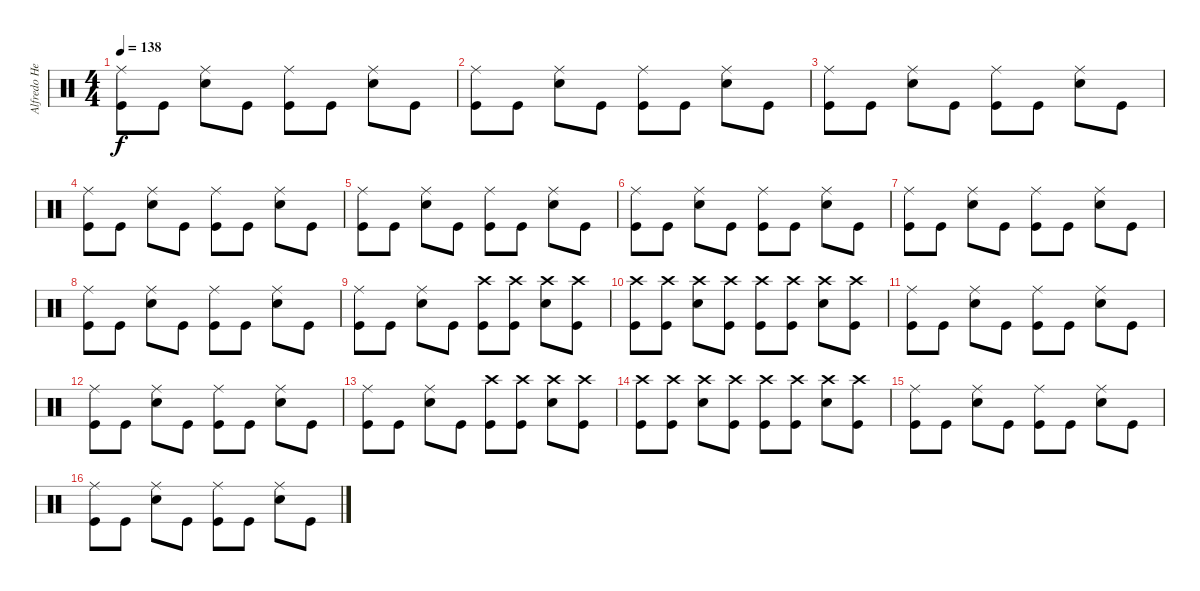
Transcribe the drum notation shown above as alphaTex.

\track ("Alfredo Hernandez" "Alfredo He") {instrument percussion}
\staff {score}
\articulation defaults
\ts (4 4)
\tempo 138
\clef neutral
\ks c
("Kick (hit)" "Ride (middle)").8{dy f} "Kick (hit)".8 ("Snare (hit) 2" "Ride (middle)").8 "Kick (hit)".8 ("Kick (hit)" "Ride (middle)").8 "Kick (hit)".8 ("Snare (hit) 2" "Ride (middle)").8 "Kick (hit)".8 |
("Kick (hit)" "Ride (middle)").8 "Kick (hit)".8 ("Snare (hit) 2" "Ride (middle)").8 "Kick (hit)".8 ("Kick (hit)" "Ride (middle)").8 "Kick (hit)".8 ("Snare (hit) 2" "Ride (middle)").8 "Kick (hit)".8 |
("Kick (hit)" "Ride (middle)").8 "Kick (hit)".8 ("Snare (hit) 2" "Ride (middle)").8 "Kick (hit)".8 ("Kick (hit)" "Ride (middle)").8 "Kick (hit)".8 ("Snare (hit) 2" "Ride (middle)").8 "Kick (hit)".8 |
("Kick (hit)" "Ride (middle)").8 "Kick (hit)".8 ("Snare (hit) 2" "Ride (middle)").8 "Kick (hit)".8 ("Kick (hit)" "Ride (middle)").8 "Kick (hit)".8 ("Snare (hit) 2" "Ride (middle)").8 "Kick (hit)".8 |
("Kick (hit)" "Ride (middle)").8 "Kick (hit)".8 ("Snare (hit) 2" "Ride (middle)").8 "Kick (hit)".8 ("Kick (hit)" "Ride (middle)").8 "Kick (hit)".8 ("Snare (hit) 2" "Ride (middle)").8 "Kick (hit)".8 |
("Kick (hit)" "Ride (middle)").8 "Kick (hit)".8 ("Snare (hit) 2" "Ride (middle)").8 "Kick (hit)".8 ("Kick (hit)" "Ride (middle)").8 "Kick (hit)".8 ("Snare (hit) 2" "Ride (middle)").8 "Kick (hit)".8 |
("Kick (hit)" "Ride (middle)").8 "Kick (hit)".8 ("Snare (hit) 2" "Ride (middle)").8 "Kick (hit)".8 ("Kick (hit)" "Ride (middle)").8 "Kick (hit)".8 ("Snare (hit) 2" "Ride (middle)").8 "Kick (hit)".8 |
("Kick (hit)" "Ride (middle)").8 "Kick (hit)".8 ("Snare (hit) 2" "Ride (middle)").8 "Kick (hit)".8 ("Kick (hit)" "Ride (middle)").8 "Kick (hit)".8 ("Snare (hit) 2" "Ride (middle)").8 "Kick (hit)".8 |
("Kick (hit)" "Ride (middle)").8 "Kick (hit)".8 ("Snare (hit) 2" "Ride (middle)").8 "Kick (hit)".8 ("Kick (hit)" "Crash high (hit)").8 ("Kick (hit)" "Crash high (hit)").8 ("Snare (hit) 2" "Crash high (hit)").8 ("Kick (hit)" "Crash high (hit)").8 |
("Kick (hit)" "Crash high (hit)").8 ("Kick (hit)" "Crash high (hit)").8 ("Snare (hit) 2" "Crash high (hit)").8 ("Kick (hit)" "Crash high (hit)").8 ("Kick (hit)" "Crash high (hit)").8 ("Kick (hit)" "Crash high (hit)").8 ("Snare (hit) 2" "Crash high (hit)").8 ("Kick (hit)" "Crash high (hit)").8 |
("Kick (hit)" "Ride (middle)").8 "Kick (hit)".8 ("Snare (hit) 2" "Ride (middle)").8 "Kick (hit)".8 ("Kick (hit)" "Ride (middle)").8 "Kick (hit)".8 ("Snare (hit) 2" "Ride (middle)").8 "Kick (hit)".8 |
("Kick (hit)" "Ride (middle)").8 "Kick (hit)".8 ("Snare (hit) 2" "Ride (middle)").8 "Kick (hit)".8 ("Kick (hit)" "Ride (middle)").8 "Kick (hit)".8 ("Snare (hit) 2" "Ride (middle)").8 "Kick (hit)".8 |
("Kick (hit)" "Ride (middle)").8 "Kick (hit)".8 ("Snare (hit) 2" "Ride (middle)").8 "Kick (hit)".8 ("Kick (hit)" "Crash high (hit)").8 ("Kick (hit)" "Crash high (hit)").8 ("Snare (hit) 2" "Crash high (hit)").8 ("Kick (hit)" "Crash high (hit)").8 |
("Kick (hit)" "Crash high (hit)").8 ("Kick (hit)" "Crash high (hit)").8 ("Snare (hit) 2" "Crash high (hit)").8 ("Kick (hit)" "Crash high (hit)").8 ("Kick (hit)" "Crash high (hit)").8 ("Kick (hit)" "Crash high (hit)").8 ("Snare (hit) 2" "Crash high (hit)").8 ("Kick (hit)" "Crash high (hit)").8 |
("Kick (hit)" "Ride (middle)").8 "Kick (hit)".8 ("Snare (hit) 2" "Ride (middle)").8 "Kick (hit)".8 ("Kick (hit)" "Ride (middle)").8 "Kick (hit)".8 ("Snare (hit) 2" "Ride (middle)").8 "Kick (hit)".8 |
("Kick (hit)" "Ride (middle)").8 "Kick (hit)".8 ("Snare (hit) 2" "Ride (middle)").8 "Kick (hit)".8 ("Kick (hit)" "Ride (middle)").8 "Kick (hit)".8 ("Snare (hit) 2" "Ride (middle)").8 "Kick (hit)".8
